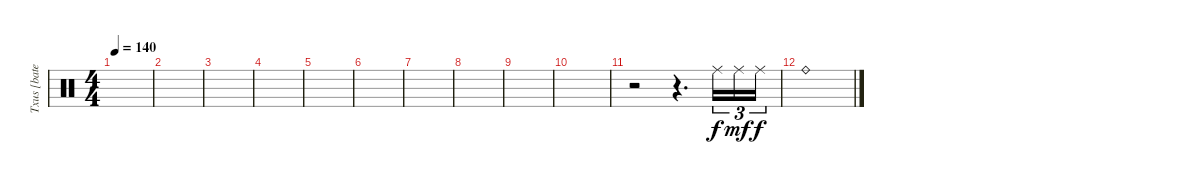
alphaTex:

\track ("Txus [bateria]" "Txus [bate") {instrument percussion}
\staff {score}
\articulation defaults
\ts (4 4)
\tempo 140
\clef neutral
\ks c
|
|
|
|
|
|
|
|
|
|
r.2 r.4{d} "Ride (middle)".16{tu (3 2)} "Ride (middle)".16{tu (3 2) dy mf} "Ride (middle)".16{tu (3 2) dy f} |
"Ride (bell)".1
